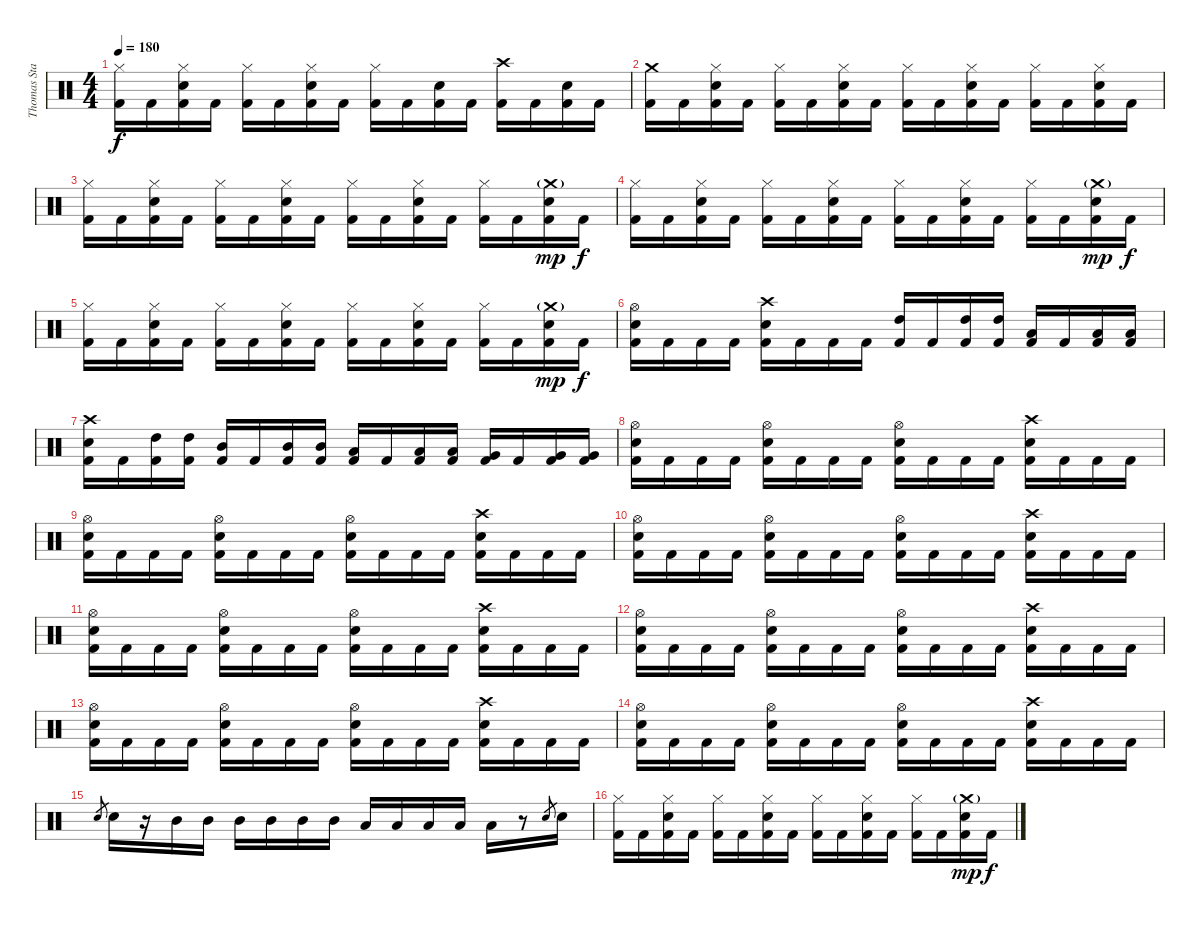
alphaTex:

\track ("Thomas Stauch" "Thomas Sta") {instrument percussion}
\staff {score}
\articulation defaults
\ts (4 4)
\tempo 180
\clef neutral
\ks c
("Hi-Hat (closed)" "Kick (hit) 2").16{dy f} "Kick (hit) 2".16 ("Hi-Hat (closed)" "Electric Snare (hit)" "Kick (hit) 2").16 "Kick (hit) 2".16 ("Hi-Hat (closed)" "Kick (hit) 2").16 "Kick (hit) 2".16 ("Hi-Hat (closed)" "Electric Snare (hit)" "Kick (hit) 2").16 "Kick (hit) 2".16 ("Hi-Hat (closed)" "Kick (hit) 2").16 "Kick (hit) 2".16 ("Electric Snare (hit)" "Kick (hit) 2").16 "Kick (hit) 2".16 ("Crash high (hit)" "Kick (hit) 2").16 "Kick (hit) 2".16 ("Electric Snare (hit)" "Kick (hit) 2").16 "Kick (hit) 2".16 |
("Crash medium (hit)" "Kick (hit) 2").16 "Kick (hit) 2".16 ("Hi-Hat (closed)" "Electric Snare (hit)" "Kick (hit) 2").16 "Kick (hit) 2".16 ("Hi-Hat (closed)" "Kick (hit) 2").16 "Kick (hit) 2".16 ("Hi-Hat (closed)" "Electric Snare (hit)" "Kick (hit) 2").16 "Kick (hit) 2".16 ("Hi-Hat (closed)" "Kick (hit) 2").16 "Kick (hit) 2".16 ("Hi-Hat (closed)" "Electric Snare (hit)" "Kick (hit) 2").16 "Kick (hit) 2".16 ("Hi-Hat (closed)" "Kick (hit) 2").16 "Kick (hit) 2".16 ("Hi-Hat (closed)" "Electric Snare (hit)" "Kick (hit) 2").16 "Kick (hit) 2".16 |
("Hi-Hat (closed)" "Kick (hit) 2").16 "Kick (hit) 2".16 ("Hi-Hat (closed)" "Electric Snare (hit)" "Kick (hit) 2").16 "Kick (hit) 2".16 ("Hi-Hat (closed)" "Kick (hit) 2").16 "Kick (hit) 2".16 ("Hi-Hat (closed)" "Electric Snare (hit)" "Kick (hit) 2").16 "Kick (hit) 2".16 ("Hi-Hat (closed)" "Kick (hit) 2").16 "Kick (hit) 2".16 ("Hi-Hat (closed)" "Electric Snare (hit)" "Kick (hit) 2").16 "Kick (hit) 2".16 ("Hi-Hat (closed)" "Kick (hit) 2").16 "Kick (hit) 2".16 ("Crash medium (hit)"{g} "Electric Snare (hit)" "Kick (hit) 2").16{dy mp} "Kick (hit) 2".16{dy f} |
("Hi-Hat (closed)" "Kick (hit) 2").16 "Kick (hit) 2".16 ("Hi-Hat (closed)" "Electric Snare (hit)" "Kick (hit) 2").16 "Kick (hit) 2".16 ("Hi-Hat (closed)" "Kick (hit) 2").16 "Kick (hit) 2".16 ("Hi-Hat (closed)" "Electric Snare (hit)" "Kick (hit) 2").16 "Kick (hit) 2".16 ("Hi-Hat (closed)" "Kick (hit) 2").16 "Kick (hit) 2".16 ("Hi-Hat (closed)" "Electric Snare (hit)" "Kick (hit) 2").16 "Kick (hit) 2".16 ("Hi-Hat (closed)" "Kick (hit) 2").16 "Kick (hit) 2".16 ("Crash medium (hit)"{g} "Electric Snare (hit)" "Kick (hit) 2").16{dy mp} "Kick (hit) 2".16{dy f} |
("Hi-Hat (closed)" "Kick (hit) 2").16 "Kick (hit) 2".16 ("Hi-Hat (closed)" "Electric Snare (hit)" "Kick (hit) 2").16 "Kick (hit) 2".16 ("Hi-Hat (closed)" "Kick (hit) 2").16 "Kick (hit) 2".16 ("Hi-Hat (closed)" "Electric Snare (hit)" "Kick (hit) 2").16 "Kick (hit) 2".16 ("Hi-Hat (closed)" "Kick (hit) 2").16 "Kick (hit) 2".16 ("Hi-Hat (closed)" "Electric Snare (hit)" "Kick (hit) 2").16 "Kick (hit) 2".16 ("Hi-Hat (closed)" "Kick (hit) 2").16 "Kick (hit) 2".16 ("Crash medium (hit)"{g} "Electric Snare (hit)" "Kick (hit) 2").16{dy mp} "Kick (hit) 2".16{dy f} |
("Hi-Hat (open)" "Electric Snare (hit)" "Kick (hit) 2").16 "Kick (hit) 2".16 "Kick (hit) 2".16 "Kick (hit) 2".16 ("Crash high (hit)" "Electric Snare (hit)" "Kick (hit) 2").16 "Kick (hit) 2".16 "Kick (hit) 2".16 "Kick (hit) 2".16 ("High Tom (hit)" "Kick (hit) 2").16 "Kick (hit) 2".16 ("High Tom (hit)" "Kick (hit) 2").16 ("High Tom (hit)" "Kick (hit) 2").16 ("Low Tom (hit)" "Kick (hit) 2").16 "Kick (hit) 2".16 ("Low Tom (hit)" "Kick (hit) 2").16 ("Low Tom (hit)" "Kick (hit) 2").16 |
("Crash high (hit)" "Electric Snare (hit)" "Kick (hit) 2").16 "Kick (hit) 2".16 ("High Tom (hit)" "Kick (hit) 2").16 ("High Tom (hit)" "Kick (hit) 2").16 ("Mid Tom (hit)" "Kick (hit) 2").16 "Kick (hit) 2".16 ("Mid Tom (hit)" "Kick (hit) 2").16 ("Mid Tom (hit)" "Kick (hit) 2").16 ("Low Tom (hit)" "Kick (hit) 2").16 "Kick (hit) 2".16 ("Low Tom (hit)" "Kick (hit) 2").16 ("Low Tom (hit)" "Kick (hit) 2").16 ("Very Low Tom (hit)" "Kick (hit) 2").16 "Kick (hit) 2".16 ("Very Low Tom (hit)" "Kick (hit) 2").16 ("Very Low Tom (hit)" "Kick (hit) 2").16 |
("Hi-Hat (open)" "Electric Snare (hit)" "Kick (hit) 2").16 "Kick (hit) 2".16 "Kick (hit) 2".16 "Kick (hit) 2".16 ("Hi-Hat (open)" "Electric Snare (hit)" "Kick (hit) 2").16 "Kick (hit) 2".16 "Kick (hit) 2".16 "Kick (hit) 2".16 ("Hi-Hat (open)" "Electric Snare (hit)" "Kick (hit) 2").16 "Kick (hit) 2".16 "Kick (hit) 2".16 "Kick (hit) 2".16 ("Crash high (hit)" "Electric Snare (hit)" "Kick (hit) 2").16 "Kick (hit) 2".16 "Kick (hit) 2".16 "Kick (hit) 2".16 |
("Hi-Hat (open)" "Electric Snare (hit)" "Kick (hit) 2").16 "Kick (hit) 2".16 "Kick (hit) 2".16 "Kick (hit) 2".16 ("Hi-Hat (open)" "Electric Snare (hit)" "Kick (hit) 2").16 "Kick (hit) 2".16 "Kick (hit) 2".16 "Kick (hit) 2".16 ("Hi-Hat (open)" "Electric Snare (hit)" "Kick (hit) 2").16 "Kick (hit) 2".16 "Kick (hit) 2".16 "Kick (hit) 2".16 ("Crash high (hit)" "Electric Snare (hit)" "Kick (hit) 2").16 "Kick (hit) 2".16 "Kick (hit) 2".16 "Kick (hit) 2".16 |
("Hi-Hat (open)" "Electric Snare (hit)" "Kick (hit) 2").16 "Kick (hit) 2".16 "Kick (hit) 2".16 "Kick (hit) 2".16 ("Hi-Hat (open)" "Electric Snare (hit)" "Kick (hit) 2").16 "Kick (hit) 2".16 "Kick (hit) 2".16 "Kick (hit) 2".16 ("Hi-Hat (open)" "Electric Snare (hit)" "Kick (hit) 2").16 "Kick (hit) 2".16 "Kick (hit) 2".16 "Kick (hit) 2".16 ("Crash high (hit)" "Electric Snare (hit)" "Kick (hit) 2").16 "Kick (hit) 2".16 "Kick (hit) 2".16 "Kick (hit) 2".16 |
("Hi-Hat (open)" "Electric Snare (hit)" "Kick (hit) 2").16 "Kick (hit) 2".16 "Kick (hit) 2".16 "Kick (hit) 2".16 ("Hi-Hat (open)" "Electric Snare (hit)" "Kick (hit) 2").16 "Kick (hit) 2".16 "Kick (hit) 2".16 "Kick (hit) 2".16 ("Hi-Hat (open)" "Electric Snare (hit)" "Kick (hit) 2").16 "Kick (hit) 2".16 "Kick (hit) 2".16 "Kick (hit) 2".16 ("Crash high (hit)" "Electric Snare (hit)" "Kick (hit) 2").16 "Kick (hit) 2".16 "Kick (hit) 2".16 "Kick (hit) 2".16 |
("Hi-Hat (open)" "Electric Snare (hit)" "Kick (hit) 2").16 "Kick (hit) 2".16 "Kick (hit) 2".16 "Kick (hit) 2".16 ("Hi-Hat (open)" "Electric Snare (hit)" "Kick (hit) 2").16 "Kick (hit) 2".16 "Kick (hit) 2".16 "Kick (hit) 2".16 ("Hi-Hat (open)" "Electric Snare (hit)" "Kick (hit) 2").16 "Kick (hit) 2".16 "Kick (hit) 2".16 "Kick (hit) 2".16 ("Crash high (hit)" "Electric Snare (hit)" "Kick (hit) 2").16 "Kick (hit) 2".16 "Kick (hit) 2".16 "Kick (hit) 2".16 |
("Hi-Hat (open)" "Electric Snare (hit)" "Kick (hit) 2").16 "Kick (hit) 2".16 "Kick (hit) 2".16 "Kick (hit) 2".16 ("Hi-Hat (open)" "Electric Snare (hit)" "Kick (hit) 2").16 "Kick (hit) 2".16 "Kick (hit) 2".16 "Kick (hit) 2".16 ("Hi-Hat (open)" "Electric Snare (hit)" "Kick (hit) 2").16 "Kick (hit) 2".16 "Kick (hit) 2".16 "Kick (hit) 2".16 ("Crash high (hit)" "Electric Snare (hit)" "Kick (hit) 2").16 "Kick (hit) 2".16 "Kick (hit) 2".16 "Kick (hit) 2".16 |
("Hi-Hat (open)" "Electric Snare (hit)" "Kick (hit) 2").16 "Kick (hit) 2".16 "Kick (hit) 2".16 "Kick (hit) 2".16 ("Hi-Hat (open)" "Electric Snare (hit)" "Kick (hit) 2").16 "Kick (hit) 2".16 "Kick (hit) 2".16 "Kick (hit) 2".16 ("Hi-Hat (open)" "Electric Snare (hit)" "Kick (hit) 2").16 "Kick (hit) 2".16 "Kick (hit) 2".16 "Kick (hit) 2".16 ("Crash high (hit)" "Electric Snare (hit)" "Kick (hit) 2").16 "Kick (hit) 2".16 "Kick (hit) 2".16 "Kick (hit) 2".16 |
"Electric Snare (hit)".8{gr} "Electric Snare (hit)".16 r.16 "Mid Tom (hit)".16 "Mid Tom (hit)".16 "Mid Tom (hit)".16 "Mid Tom (hit)".16 "Mid Tom (hit)".16 "Mid Tom (hit)".16 "Low Tom (hit)".16 "Low Tom (hit)".16 "Low Tom (hit)".16 "Low Tom (hit)".16 "Low Tom (hit)".16 r.8 "Electric Snare (hit)".8{gr} "Electric Snare (hit)".16 |
("Hi-Hat (closed)" "Kick (hit) 2").16 "Kick (hit) 2".16 ("Hi-Hat (closed)" "Electric Snare (hit)" "Kick (hit) 2").16 "Kick (hit) 2".16 ("Hi-Hat (closed)" "Kick (hit) 2").16 "Kick (hit) 2".16 ("Hi-Hat (closed)" "Electric Snare (hit)" "Kick (hit) 2").16 "Kick (hit) 2".16 ("Hi-Hat (closed)" "Kick (hit) 2").16 "Kick (hit) 2".16 ("Hi-Hat (closed)" "Electric Snare (hit)" "Kick (hit) 2").16 "Kick (hit) 2".16 ("Hi-Hat (closed)" "Kick (hit) 2").16 "Kick (hit) 2".16 ("Crash medium (hit)"{g} "Electric Snare (hit)" "Kick (hit) 2").16{dy mp} "Kick (hit) 2".16{dy f}
